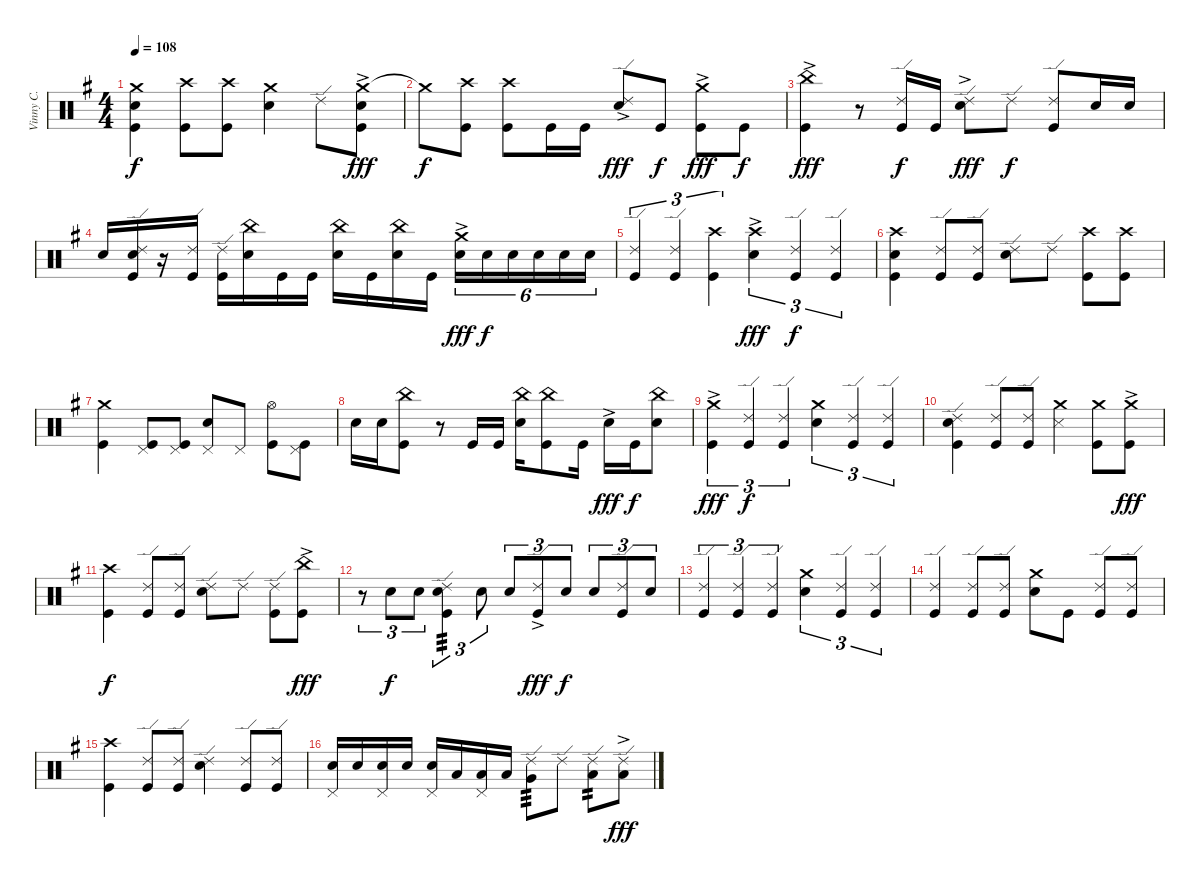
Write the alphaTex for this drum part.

\track ("Vinny C." "Vinny C.") {instrument percussion}
\staff {score}
\articulation defaults
\ts (4 4)
\tempo 108
\clef neutral
\ks g
("Crash medium (hit)" "Electric Snare (hit)" "Kick (hit)").4{dy f} ("Crash high (hit)" "Kick (hit)").8 ("Crash high (hit)" "Kick (hit)").8 ("Crash medium (hit)" "Electric Snare (hit)").4 "Ride (edge) 2".8 ("Crash medium (hit)" "Electric Snare (hit)" "Kick (hit)"{ac}).8{dy fff} |
"Crash medium (hit)"{t}.8{dy f} ("Crash high (hit)" "Kick (hit)").8 ("Crash high (hit)" "Kick (hit)").8 "Kick (hit)".16 "Kick (hit)".16 ("Ride (edge) 2" "Electric Snare (hit)"{ac}).8{dy fff} "Kick (hit)".8{dy f} ("Crash medium (hit)" "Kick (hit)"{ac}).8{dy fff} "Kick (hit)".8{dy f} |
("China (hit)"{ac} "Kick (hit)").4{dy fff} r.8 ("Ride (edge) 2" "Kick (hit)").16{dy f} "Kick (hit)".16 ("Ride (edge) 2" "Electric Snare (hit)"{ac}).8{dy fff} "Ride (edge) 2".8{dy f} ("Ride (edge) 2" "Kick (hit)").8 "Electric Snare (hit)".16 "Electric Snare (hit)".16 |
"Electric Snare (hit)".16 ("Ride (edge) 2" "Electric Snare (hit)" "Kick (hit)").16 r.16 ("Ride (edge) 2" "Kick (hit)").16 ("Ride (edge) 2" "Kick (hit)").16 ("China (hit)" "Electric Snare (hit)").16 "Kick (hit)".16 "Kick (hit)".16 ("China (hit)" "Electric Snare (hit)").16 "Kick (hit)".16 ("China (hit)" "Electric Snare (hit)").16 "Kick (hit)".16 ("Crash medium (hit)"{ac} "Electric Snare (hit)").16{tu (6 4) dy fff} "Electric Snare (hit)".16{tu (6 4) dy f} "Electric Snare (hit)".16{tu (6 4)} "Electric Snare (hit)".16{tu (6 4)} "Electric Snare (hit)".16{tu (6 4)} "Electric Snare (hit)".16{tu (6 4)} |
("Ride (edge) 2" "Kick (hit)").4{tu (3 2)} ("Ride (edge) 2" "Kick (hit)").4{tu (3 2)} ("Crash high (hit)" "Kick (hit)").4{tu (3 2)} ("Crash high (hit)" "Electric Snare (hit)"{ac}).4{tu (3 2) dy fff} ("Ride (edge) 2" "Kick (hit)").4{tu (3 2) dy f} ("Ride (edge) 2" "Kick (hit)").4{tu (3 2)} |
("Crash high (hit)" "Electric Snare (hit)" "Kick (hit)").4 ("Ride (edge) 2" "Kick (hit)").8 ("Ride (edge) 2" "Kick (hit)").8 ("Ride (edge) 2" "Electric Snare (hit)").8 "Ride (edge) 2".8 ("Crash high (hit)" "Kick (hit)").8 ("Crash high (hit)" "Kick (hit)").8 |
("Crash medium (hit)" "Kick (hit)").4 ("Pedal Hi-Hat (hit)" "Kick (hit)").8 ("Pedal Hi-Hat (hit)" "Kick (hit)").8 ("Pedal Hi-Hat (hit)" "Electric Snare (hit)").8 "Pedal Hi-Hat (hit)".8 ("Hi-Hat (open)" "Kick (hit)").8 ("Pedal Hi-Hat (hit)" "Kick (hit)").8 |
"Electric Snare (hit)".16 "Electric Snare (hit)".16 ("China (hit)" "Kick (hit)").8 r.8 "Kick (hit)".16 "Kick (hit)".16 ("China (hit)" "Electric Snare (hit)").16 ("China (hit)" "Kick (hit)").8 "Kick (hit)".16 "Electric Snare (hit)"{ac}.16{dy fff} "Kick (hit)".16{dy f} ("China (hit)" "Electric Snare (hit)").8 |
("Crash medium (hit)"{ac} "Kick (hit)").4{tu (3 2) dy fff} ("Ride (edge) 2" "Kick (hit)").4{tu (3 2) dy f} ("Ride (edge) 2" "Kick (hit)").4{tu (3 2)} ("Crash medium (hit)" "Electric Snare (hit)").4{tu (3 2)} ("Ride (edge) 2" "Kick (hit)").4{tu (3 2)} ("Ride (edge) 2" "Kick (hit)").4{tu (3 2)} |
("Ride (edge) 2" "Electric Snare (hit)" "Kick (hit)").4 ("Ride (edge) 2" "Kick (hit)").8 ("Ride (edge) 2" "Kick (hit)").8 ("Crash medium (hit)" "Snare (side stick) 3").4 ("Crash medium (hit)" "Kick (hit)").8 ("Crash medium (hit)"{ac} "Kick (hit)").8{dy fff} |
("Crash high (hit)" "Kick (hit)").4{dy f} ("Ride (edge) 2" "Kick (hit)").8 ("Ride (edge) 2" "Kick (hit)").8 ("Ride (edge) 2" "Electric Snare (hit)").8 "Ride (edge) 2".8 ("Ride (edge) 2" "Kick (hit)").8 ("China (hit)"{ac} "Kick (hit)").8{dy fff} |
r.8{tu (3 2)} "Electric Snare (hit)".8{tu (3 2) dy f} "Electric Snare (hit)".8{tu (3 2)} ("Ride (edge) 2" "Electric Snare (hit)" "Kick (hit)").4{tu (3 2) tp 3} "Electric Snare (hit)".8{tu (3 2)} "Electric Snare (hit)".8{tu (3 2)} ("Ride (edge) 2"{ac} "Kick (hit)").8{tu (3 2) dy fff} "Electric Snare (hit)".8{tu (3 2) dy f} "Electric Snare (hit)".8{tu (3 2)} ("Ride (edge) 2" "Kick (hit)").8{tu (3 2)} "Electric Snare (hit)".8{tu (3 2)} |
("Ride (edge) 2" "Kick (hit)").4{tu (3 2)} ("Ride (edge) 2" "Kick (hit)").4{tu (3 2)} ("Ride (edge) 2" "Kick (hit)").4{tu (3 2)} ("Crash medium (hit)" "Electric Snare (hit)").4{tu (3 2)} ("Ride (edge) 2" "Kick (hit)").4{tu (3 2)} ("Ride (edge) 2" "Kick (hit)").4{tu (3 2)} |
("Ride (edge) 2" "Kick (hit)").4 ("Ride (edge) 2" "Kick (hit)").8 ("Ride (edge) 2" "Kick (hit)").8 ("Crash medium (hit)" "Electric Snare (hit)").8 "Kick (hit)".8 ("Ride (edge) 2" "Kick (hit)").8 ("Ride (edge) 2" "Kick (hit)").8 |
("Crash high (hit)" "Kick (hit)").4 ("Ride (edge) 2" "Kick (hit)").8 ("Ride (edge) 2" "Kick (hit)").8 ("Ride (edge) 2" "Electric Snare (hit)").4 ("Ride (edge) 2" "Kick (hit)").8 ("Ride (edge) 2" "Kick (hit)").8 |
("Pedal Hi-Hat (hit)" "Electric Snare (hit)").16 "Electric Snare (hit)".16 ("Pedal Hi-Hat (hit)" "Electric Snare (hit)").16 "Electric Snare (hit)".16 ("Pedal Hi-Hat (hit)" "Electric Snare (hit)").16 "Low Tom (hit)".16 ("Pedal Hi-Hat (hit)" "Low Tom (hit)").16 "Low Tom (hit)".16 ("Ride (edge) 2" "Very Low Tom (hit)").8{tp 3} "Ride (edge) 2".8 ("Ride (edge) 2" "Low Floor Tom (hit)").8{tp 2} ("Ride (edge) 2" "Low Floor Tom (hit)"{ac}).8{dy fff}
